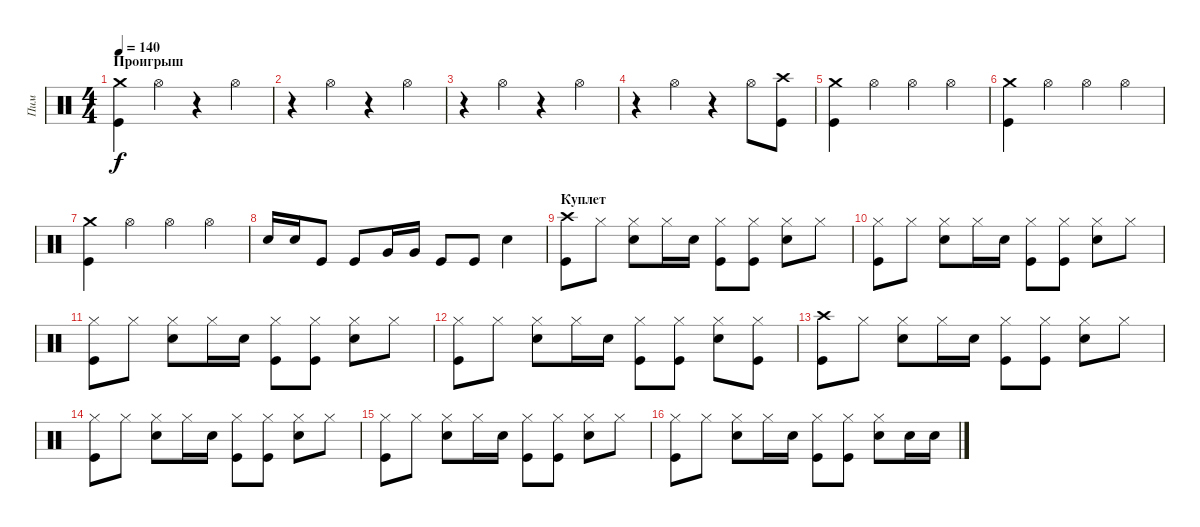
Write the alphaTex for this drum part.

\track ("Пим" "Пим") {instrument percussion}
\staff {score}
\articulation defaults
\ts (4 4)
\section ("" "Проигрыш")
\tempo 140
\clef neutral
\ks c
("Crash medium (hit)" "Kick (hit)").4{dy f} "Hi-Hat (open)".4 r.4 "Hi-Hat (open)".4 |
r.4 "Hi-Hat (open)".4 r.4 "Hi-Hat (open)".4 |
r.4 "Hi-Hat (open)".4 r.4 "Hi-Hat (open)".4 |
r.4 "Hi-Hat (open)".4 r.4 "Hi-Hat (open)".8 ("Crash high (hit)" "Kick (hit)").8 |
("Crash medium (hit)" "Kick (hit)").4 "Hi-Hat (open)".4 "Hi-Hat (open)".4 "Hi-Hat (open)".4 |
("Crash medium (hit)" "Kick (hit)").4 "Hi-Hat (open)".4 "Hi-Hat (open)".4 "Hi-Hat (open)".4 |
("Crash medium (hit)" "Kick (hit)").4 "Hi-Hat (open)".4 "Hi-Hat (open)".4 "Hi-Hat (open)".4 |
"Snare (hit) 2".16 "Snare (hit) 2".16 "Kick (hit)".8 "Kick (hit)".8 "Very Low Tom (hit)".16 "Very Low Tom (hit)".16 "Kick (hit)".8 "Kick (hit)".8 "Snare (hit) 2".4 |
\section ("" "Куплет")
("Crash high (hit)" "Kick (hit)").8 "Hi-Hat (closed)".8 ("Hi-Hat (closed)" "Snare (hit) 2").8 "Hi-Hat (closed)".16 "Snare (hit) 2".16 ("Hi-Hat (closed)" "Kick (hit)").8 ("Hi-Hat (closed)" "Kick (hit)").8 ("Hi-Hat (closed)" "Snare (hit) 2").8 "Hi-Hat (closed)".8 |
("Hi-Hat (closed)" "Kick (hit)").8 "Hi-Hat (closed)".8 ("Hi-Hat (closed)" "Snare (hit) 2").8 "Hi-Hat (closed)".16 "Snare (hit) 2".16 ("Hi-Hat (closed)" "Kick (hit)").8 ("Hi-Hat (closed)" "Kick (hit)").8 ("Hi-Hat (closed)" "Snare (hit) 2").8 "Hi-Hat (closed)".8 |
("Hi-Hat (closed)" "Kick (hit)").8 "Hi-Hat (closed)".8 ("Hi-Hat (closed)" "Snare (hit) 2").8 "Hi-Hat (closed)".16 "Snare (hit) 2".16 ("Hi-Hat (closed)" "Kick (hit)").8 ("Hi-Hat (closed)" "Kick (hit)").8 ("Hi-Hat (closed)" "Snare (hit) 2").8 "Hi-Hat (closed)".8 |
("Hi-Hat (closed)" "Kick (hit)").8 "Hi-Hat (closed)".8 ("Hi-Hat (closed)" "Snare (hit) 2").8 "Hi-Hat (closed)".16 "Snare (hit) 2".16 ("Hi-Hat (closed)" "Kick (hit)").8 ("Hi-Hat (closed)" "Kick (hit)").8 ("Hi-Hat (closed)" "Snare (hit) 2").8 ("Hi-Hat (closed)" "Kick (hit)").8 |
("Crash high (hit)" "Kick (hit)").8 "Hi-Hat (closed)".8 ("Hi-Hat (closed)" "Snare (hit) 2").8 "Hi-Hat (closed)".16 "Snare (hit) 2".16 ("Hi-Hat (closed)" "Kick (hit)").8 ("Hi-Hat (closed)" "Kick (hit)").8 ("Hi-Hat (closed)" "Snare (hit) 2").8 "Hi-Hat (closed)".8 |
("Hi-Hat (closed)" "Kick (hit)").8 "Hi-Hat (closed)".8 ("Hi-Hat (closed)" "Snare (hit) 2").8 "Hi-Hat (closed)".16 "Snare (hit) 2".16 ("Hi-Hat (closed)" "Kick (hit)").8 ("Hi-Hat (closed)" "Kick (hit)").8 ("Hi-Hat (closed)" "Snare (hit) 2").8 "Hi-Hat (closed)".8 |
("Hi-Hat (closed)" "Kick (hit)").8 "Hi-Hat (closed)".8 ("Hi-Hat (closed)" "Snare (hit) 2").8 "Hi-Hat (closed)".16 "Snare (hit) 2".16 ("Hi-Hat (closed)" "Kick (hit)").8 ("Hi-Hat (closed)" "Kick (hit)").8 ("Hi-Hat (closed)" "Snare (hit) 2").8 "Hi-Hat (closed)".8 |
("Hi-Hat (closed)" "Kick (hit)").8 "Hi-Hat (closed)".8 ("Hi-Hat (closed)" "Snare (hit) 2").8 "Hi-Hat (closed)".16 "Snare (hit) 2".16 ("Hi-Hat (closed)" "Kick (hit)").8 ("Hi-Hat (closed)" "Kick (hit)").8 ("Hi-Hat (closed)" "Snare (hit) 2").8 "Snare (hit) 2".16 "Snare (hit) 2".16
